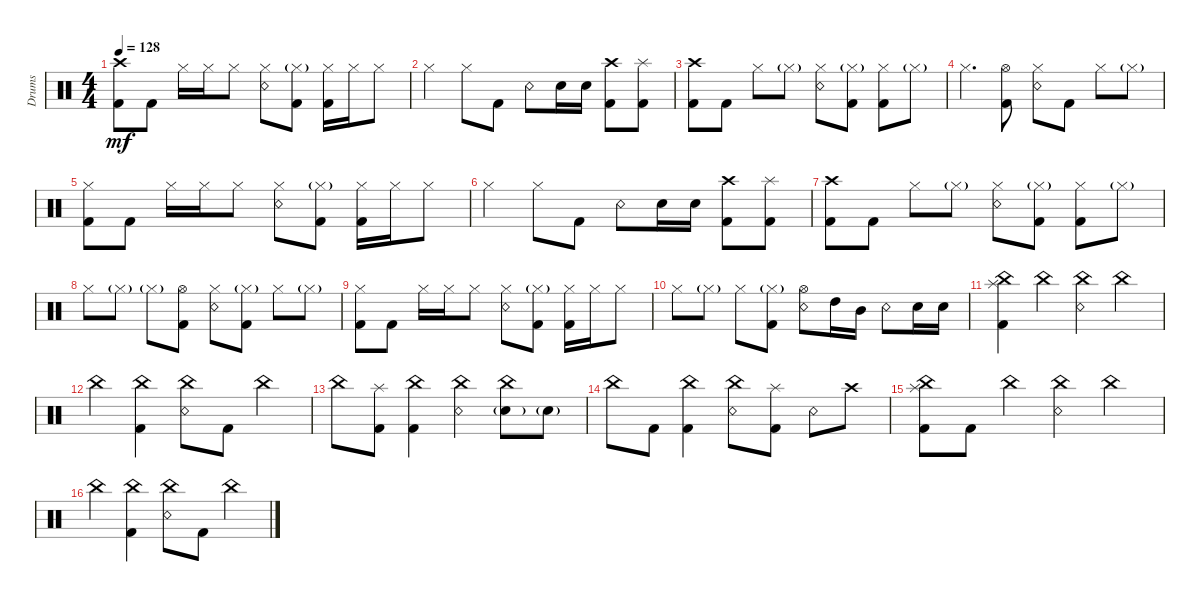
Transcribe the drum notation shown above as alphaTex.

\track ("Drums" "Drums") {instrument percussion}
\staff {score}
\articulation defaults
\ts (4 4)
\tempo 128
\clef neutral
\ks c
("Crash high (hit)" "Kick (hit) 2").8{dy mf} "Kick (hit) 2".8 "Hi-Hat (closed)".16 "Hi-Hat (closed)".16 "Hi-Hat (closed)".8 ("Hi-Hat (closed)" "Snare (rim shot)").8 ("Hi-Hat (closed)"{g} "Kick (hit) 2").8 ("Hi-Hat (closed)" "Kick (hit) 2").16 "Hi-Hat (closed)".16 "Hi-Hat (closed)".8 |
"Hi-Hat (closed)".4 "Hi-Hat (closed)".8 "Kick (hit) 2".8 "Snare (rim shot)".8 "Snare (hit) 2".16 "Snare (hit) 2".16 ("Crash high (hit)" "Kick (hit) 2").8 ("Splash (hit)" "Kick (hit) 2").8 |
("Crash high (hit)" "Kick (hit) 2").8 "Kick (hit) 2".8 "Hi-Hat (closed)".8 "Hi-Hat (closed)"{g}.8 ("Hi-Hat (closed)" "Snare (rim shot)").8 ("Hi-Hat (closed)"{g} "Kick (hit) 2").8 ("Hi-Hat (closed)" "Kick (hit) 2").8 "Hi-Hat (closed)"{g}.8 |
"Hi-Hat (closed)".4{d} ("Hi-Hat (open)" "Kick (hit) 2").8 ("Hi-Hat (closed)" "Snare (rim shot)").8 "Kick (hit) 2".8 "Hi-Hat (closed)".8 "Hi-Hat (closed)"{g}.8 |
("Hi-Hat (closed)" "Kick (hit) 2").8 "Kick (hit) 2".8 "Hi-Hat (closed)".16 "Hi-Hat (closed)".16 "Hi-Hat (closed)".8 ("Hi-Hat (closed)" "Snare (rim shot)").8 ("Hi-Hat (closed)"{g} "Kick (hit) 2").8 ("Hi-Hat (closed)" "Kick (hit) 2").16 "Hi-Hat (closed)".16 "Hi-Hat (closed)".8 |
"Hi-Hat (closed)".4 "Hi-Hat (closed)".8 "Kick (hit) 2".8 "Snare (rim shot)".8 "Snare (hit) 2".16 "Snare (hit) 2".16 ("Crash high (hit)" "Kick (hit) 2").8 ("Splash (hit)" "Kick (hit) 2").8 |
("Crash high (hit)" "Kick (hit) 2").8 "Kick (hit) 2".8 "Hi-Hat (closed)".8 "Hi-Hat (closed)"{g}.8 ("Hi-Hat (closed)" "Snare (rim shot)").8 ("Hi-Hat (closed)"{g} "Kick (hit) 2").8 ("Hi-Hat (closed)" "Kick (hit) 2").8 "Hi-Hat (closed)"{g}.8 |
"Hi-Hat (closed)".8 "Hi-Hat (closed)"{g}.8 "Hi-Hat (closed)"{g}.8 ("Hi-Hat (open)" "Kick (hit) 2").8 ("Hi-Hat (closed)" "Snare (rim shot)").8 ("Hi-Hat (closed)"{g} "Kick (hit) 2").8 "Hi-Hat (closed)".8 "Hi-Hat (closed)"{g}.8 |
("Hi-Hat (closed)" "Kick (hit) 2").8 "Kick (hit) 2".8 "Hi-Hat (closed)".16 "Hi-Hat (closed)".16 "Hi-Hat (closed)".8 ("Hi-Hat (closed)" "Snare (rim shot)").8 ("Hi-Hat (closed)"{g} "Kick (hit) 2").8 ("Hi-Hat (closed)" "Kick (hit) 2").16 "Hi-Hat (closed)".16 "Hi-Hat (closed)".8 |
"Hi-Hat (closed)".8 "Hi-Hat (closed)"{g}.8 "Hi-Hat (closed)".8 ("Hi-Hat (closed)"{g} "Kick (hit) 2").8 ("Hi-Hat (open)" "Snare (rim shot)").8 "High Tom (hit)".16 "Mid Tom (hit)".16 "Snare (rim shot)".8 "Snare (hit) 2".16 "Snare (hit) 2".16 |
("China (hit)" "Splash (hit)" "Kick (hit) 2").4 "China (hit)".4 ("China (hit)" "Snare (rim shot)").4 "China (hit)".4 |
"China (hit)".4 ("China (hit)" "Kick (hit) 2").4 ("China (hit)" "Snare (rim shot)").8 "Kick (hit) 2".8 "China (hit)".4 |
"China (hit)".8 ("Splash (hit)" "Kick (hit) 2").8 ("China (hit)" "Kick (hit) 2").4 ("China (hit)" "Snare (rim shot)").4 ("China (hit)" "Snare (hit) 2"{g}).8 "Snare (hit) 2"{g}.8 |
"China (hit)".8 "Kick (hit) 2".8 ("China (hit)" "Kick (hit) 2").4 ("China (hit)" "Snare (rim shot)").8 ("Splash (hit)" "Kick (hit) 2").8 "Snare (rim shot)".8 "Crash high (hit)".8 |
("China (hit)" "Splash (hit)" "Kick (hit) 2").8 "Kick (hit) 2".8 "China (hit)".4 ("China (hit)" "Snare (rim shot)").4 "China (hit)".4 |
"China (hit)".4 ("China (hit)" "Kick (hit) 2").4 ("China (hit)" "Snare (rim shot)").8 "Kick (hit) 2".8 "China (hit)".4
